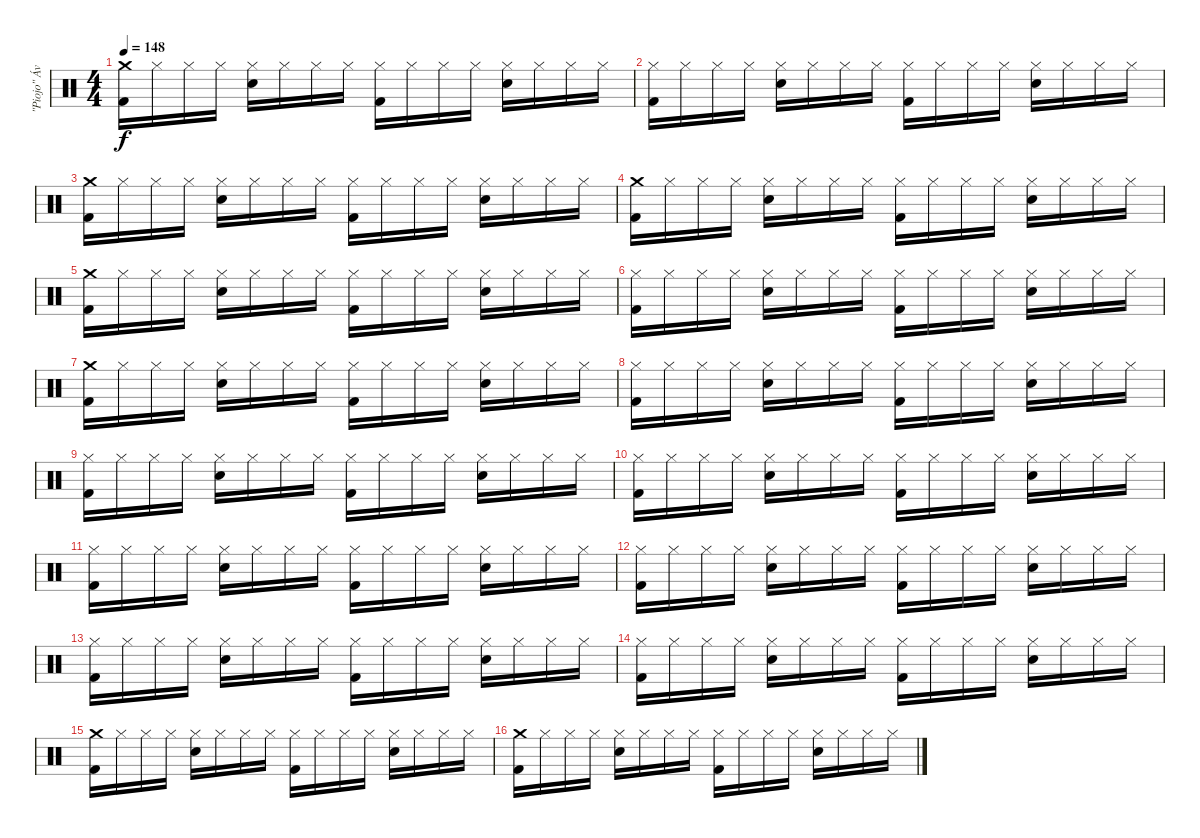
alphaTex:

\track ("\"Piojo\" Ávalos" "\"Piojo\" Áv") {instrument percussion}
\staff {score}
\articulation defaults
\ts (4 4)
\tempo 148
\clef neutral
\ks c
("Crash medium (hit)" "Kick (hit) 2").16{dy f} "Hi-Hat (closed)".16 "Hi-Hat (closed)".16 "Hi-Hat (closed)".16 ("Hi-Hat (closed)" "Electric Snare (hit)").16 "Hi-Hat (closed)".16 "Hi-Hat (closed)".16 "Hi-Hat (closed)".16 ("Hi-Hat (closed)" "Kick (hit) 2").16 "Hi-Hat (closed)".16 "Hi-Hat (closed)".16 "Hi-Hat (closed)".16 ("Hi-Hat (closed)" "Electric Snare (hit)").16 "Hi-Hat (closed)".16 "Hi-Hat (closed)".16 "Hi-Hat (closed)".16 |
("Hi-Hat (closed)" "Kick (hit) 2").16 "Hi-Hat (closed)".16 "Hi-Hat (closed)".16 "Hi-Hat (closed)".16 ("Hi-Hat (closed)" "Electric Snare (hit)").16 "Hi-Hat (closed)".16 "Hi-Hat (closed)".16 "Hi-Hat (closed)".16 ("Hi-Hat (closed)" "Kick (hit) 2").16 "Hi-Hat (closed)".16 "Hi-Hat (closed)".16 "Hi-Hat (closed)".16 ("Hi-Hat (closed)" "Electric Snare (hit)").16 "Hi-Hat (closed)".16 "Hi-Hat (closed)".16 "Hi-Hat (closed)".16 |
("Crash medium (hit)" "Kick (hit) 2").16 "Hi-Hat (closed)".16 "Hi-Hat (closed)".16 "Hi-Hat (closed)".16 ("Hi-Hat (closed)" "Electric Snare (hit)").16 "Hi-Hat (closed)".16 "Hi-Hat (closed)".16 "Hi-Hat (closed)".16 ("Hi-Hat (closed)" "Kick (hit) 2").16 "Hi-Hat (closed)".16 "Hi-Hat (closed)".16 "Hi-Hat (closed)".16 ("Hi-Hat (closed)" "Electric Snare (hit)").16 "Hi-Hat (closed)".16 "Hi-Hat (closed)".16 "Hi-Hat (closed)".16 |
("Crash medium (hit)" "Kick (hit) 2").16 "Hi-Hat (closed)".16 "Hi-Hat (closed)".16 "Hi-Hat (closed)".16 ("Hi-Hat (closed)" "Electric Snare (hit)").16 "Hi-Hat (closed)".16 "Hi-Hat (closed)".16 "Hi-Hat (closed)".16 ("Hi-Hat (closed)" "Kick (hit) 2").16 "Hi-Hat (closed)".16 "Hi-Hat (closed)".16 "Hi-Hat (closed)".16 ("Hi-Hat (closed)" "Electric Snare (hit)").16 "Hi-Hat (closed)".16 "Hi-Hat (closed)".16 "Hi-Hat (closed)".16 |
("Crash medium (hit)" "Kick (hit) 2").16 "Hi-Hat (closed)".16 "Hi-Hat (closed)".16 "Hi-Hat (closed)".16 ("Hi-Hat (closed)" "Electric Snare (hit)").16 "Hi-Hat (closed)".16 "Hi-Hat (closed)".16 "Hi-Hat (closed)".16 ("Hi-Hat (closed)" "Kick (hit) 2").16 "Hi-Hat (closed)".16 "Hi-Hat (closed)".16 "Hi-Hat (closed)".16 ("Hi-Hat (closed)" "Electric Snare (hit)").16 "Hi-Hat (closed)".16 "Hi-Hat (closed)".16 "Hi-Hat (closed)".16 |
("Hi-Hat (closed)" "Kick (hit) 2").16 "Hi-Hat (closed)".16 "Hi-Hat (closed)".16 "Hi-Hat (closed)".16 ("Hi-Hat (closed)" "Electric Snare (hit)").16 "Hi-Hat (closed)".16 "Hi-Hat (closed)".16 "Hi-Hat (closed)".16 ("Hi-Hat (closed)" "Kick (hit) 2").16 "Hi-Hat (closed)".16 "Hi-Hat (closed)".16 "Hi-Hat (closed)".16 ("Hi-Hat (closed)" "Electric Snare (hit)").16 "Hi-Hat (closed)".16 "Hi-Hat (closed)".16 "Hi-Hat (closed)".16 |
("Crash medium (hit)" "Kick (hit) 2").16 "Hi-Hat (closed)".16 "Hi-Hat (closed)".16 "Hi-Hat (closed)".16 ("Hi-Hat (closed)" "Electric Snare (hit)").16 "Hi-Hat (closed)".16 "Hi-Hat (closed)".16 "Hi-Hat (closed)".16 ("Hi-Hat (closed)" "Kick (hit) 2").16 "Hi-Hat (closed)".16 "Hi-Hat (closed)".16 "Hi-Hat (closed)".16 ("Hi-Hat (closed)" "Electric Snare (hit)").16 "Hi-Hat (closed)".16 "Hi-Hat (closed)".16 "Hi-Hat (closed)".16 |
("Hi-Hat (closed)" "Kick (hit) 2").16 "Hi-Hat (closed)".16 "Hi-Hat (closed)".16 "Hi-Hat (closed)".16 ("Hi-Hat (closed)" "Electric Snare (hit)").16 "Hi-Hat (closed)".16 "Hi-Hat (closed)".16 "Hi-Hat (closed)".16 ("Hi-Hat (closed)" "Kick (hit) 2").16 "Hi-Hat (closed)".16 "Hi-Hat (closed)".16 "Hi-Hat (closed)".16 ("Hi-Hat (closed)" "Electric Snare (hit)").16 "Hi-Hat (closed)".16 "Hi-Hat (closed)".16 "Hi-Hat (closed)".16 |
("Hi-Hat (closed)" "Kick (hit) 2").16 "Hi-Hat (closed)".16 "Hi-Hat (closed)".16 "Hi-Hat (closed)".16 ("Hi-Hat (closed)" "Electric Snare (hit)").16 "Hi-Hat (closed)".16 "Hi-Hat (closed)".16 "Hi-Hat (closed)".16 ("Hi-Hat (closed)" "Kick (hit) 2").16 "Hi-Hat (closed)".16 "Hi-Hat (closed)".16 "Hi-Hat (closed)".16 ("Hi-Hat (closed)" "Electric Snare (hit)").16 "Hi-Hat (closed)".16 "Hi-Hat (closed)".16 "Hi-Hat (closed)".16 |
("Hi-Hat (closed)" "Kick (hit) 2").16 "Hi-Hat (closed)".16 "Hi-Hat (closed)".16 "Hi-Hat (closed)".16 ("Hi-Hat (closed)" "Electric Snare (hit)").16 "Hi-Hat (closed)".16 "Hi-Hat (closed)".16 "Hi-Hat (closed)".16 ("Hi-Hat (closed)" "Kick (hit) 2").16 "Hi-Hat (closed)".16 "Hi-Hat (closed)".16 "Hi-Hat (closed)".16 ("Hi-Hat (closed)" "Electric Snare (hit)").16 "Hi-Hat (closed)".16 "Hi-Hat (closed)".16 "Hi-Hat (closed)".16 |
("Hi-Hat (closed)" "Kick (hit) 2").16 "Hi-Hat (closed)".16 "Hi-Hat (closed)".16 "Hi-Hat (closed)".16 ("Hi-Hat (closed)" "Electric Snare (hit)").16 "Hi-Hat (closed)".16 "Hi-Hat (closed)".16 "Hi-Hat (closed)".16 ("Hi-Hat (closed)" "Kick (hit) 2").16 "Hi-Hat (closed)".16 "Hi-Hat (closed)".16 "Hi-Hat (closed)".16 ("Hi-Hat (closed)" "Electric Snare (hit)").16 "Hi-Hat (closed)".16 "Hi-Hat (closed)".16 "Hi-Hat (closed)".16 |
("Hi-Hat (closed)" "Kick (hit) 2").16 "Hi-Hat (closed)".16 "Hi-Hat (closed)".16 "Hi-Hat (closed)".16 ("Hi-Hat (closed)" "Electric Snare (hit)").16 "Hi-Hat (closed)".16 "Hi-Hat (closed)".16 "Hi-Hat (closed)".16 ("Hi-Hat (closed)" "Kick (hit) 2").16 "Hi-Hat (closed)".16 "Hi-Hat (closed)".16 "Hi-Hat (closed)".16 ("Hi-Hat (closed)" "Electric Snare (hit)").16 "Hi-Hat (closed)".16 "Hi-Hat (closed)".16 "Hi-Hat (closed)".16 |
("Hi-Hat (closed)" "Kick (hit) 2").16 "Hi-Hat (closed)".16 "Hi-Hat (closed)".16 "Hi-Hat (closed)".16 ("Hi-Hat (closed)" "Electric Snare (hit)").16 "Hi-Hat (closed)".16 "Hi-Hat (closed)".16 "Hi-Hat (closed)".16 ("Hi-Hat (closed)" "Kick (hit) 2").16 "Hi-Hat (closed)".16 "Hi-Hat (closed)".16 "Hi-Hat (closed)".16 ("Hi-Hat (closed)" "Electric Snare (hit)").16 "Hi-Hat (closed)".16 "Hi-Hat (closed)".16 "Hi-Hat (closed)".16 |
("Hi-Hat (closed)" "Kick (hit) 2").16 "Hi-Hat (closed)".16 "Hi-Hat (closed)".16 "Hi-Hat (closed)".16 ("Hi-Hat (closed)" "Electric Snare (hit)").16 "Hi-Hat (closed)".16 "Hi-Hat (closed)".16 "Hi-Hat (closed)".16 ("Hi-Hat (closed)" "Kick (hit) 2").16 "Hi-Hat (closed)".16 "Hi-Hat (closed)".16 "Hi-Hat (closed)".16 ("Hi-Hat (closed)" "Electric Snare (hit)").16 "Hi-Hat (closed)".16 "Hi-Hat (closed)".16 "Hi-Hat (closed)".16 |
("Crash medium (hit)" "Kick (hit) 2").16 "Hi-Hat (closed)".16 "Hi-Hat (closed)".16 "Hi-Hat (closed)".16 ("Hi-Hat (closed)" "Electric Snare (hit)").16 "Hi-Hat (closed)".16 "Hi-Hat (closed)".16 "Hi-Hat (closed)".16 ("Hi-Hat (closed)" "Kick (hit) 2").16 "Hi-Hat (closed)".16 "Hi-Hat (closed)".16 "Hi-Hat (closed)".16 ("Hi-Hat (closed)" "Electric Snare (hit)").16 "Hi-Hat (closed)".16 "Hi-Hat (closed)".16 "Hi-Hat (closed)".16 |
("Crash medium (hit)" "Kick (hit) 2").16 "Hi-Hat (closed)".16 "Hi-Hat (closed)".16 "Hi-Hat (closed)".16 ("Hi-Hat (closed)" "Electric Snare (hit)").16 "Hi-Hat (closed)".16 "Hi-Hat (closed)".16 "Hi-Hat (closed)".16 ("Hi-Hat (closed)" "Kick (hit) 2").16 "Hi-Hat (closed)".16 "Hi-Hat (closed)".16 "Hi-Hat (closed)".16 ("Hi-Hat (closed)" "Electric Snare (hit)").16 "Hi-Hat (closed)".16 "Hi-Hat (closed)".16 "Hi-Hat (closed)".16
